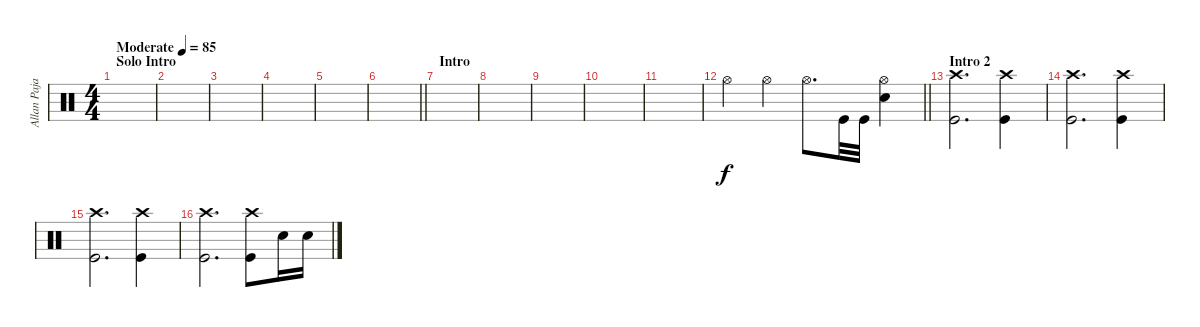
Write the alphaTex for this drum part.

\track ("Allan Pajarin (Drums)" "Allan Paja") {instrument percussion}
\staff {score}
\articulation defaults
\ts (4 4)
\section ("" "Solo Intro")
\tempo (85 "Moderate")
\clef neutral
\ks c
|
|
|
|
|
\barLineRight lightlight
|
\section ("" "Intro")
|
|
|
|
|
\barLineRight lightlight "Hi-Hat (open)".4 "Hi-Hat (open)".4 "Hi-Hat (open)".8{d} "Kick (hit)".32 "Kick (hit)".32
("Hi-Hat (open)" "Electric Snare (hit)").4 |
\section ("" "Intro 2")
("Crash high (hit)" "Kick (hit)").2{d} ("Crash high (hit)" "Kick (hit)").4 |
("Crash high (hit)" "Kick (hit)").2{d} ("Crash high (hit)" "Kick (hit)").4 |
("Crash high (hit)" "Kick (hit)").2{d} ("Crash high (hit)" "Kick (hit)").4 |
("Crash high (hit)" "Kick (hit)").2{d} ("Crash high (hit)" "Kick (hit)").8 "Electric Snare (hit)".16 "Electric Snare (hit)".16
